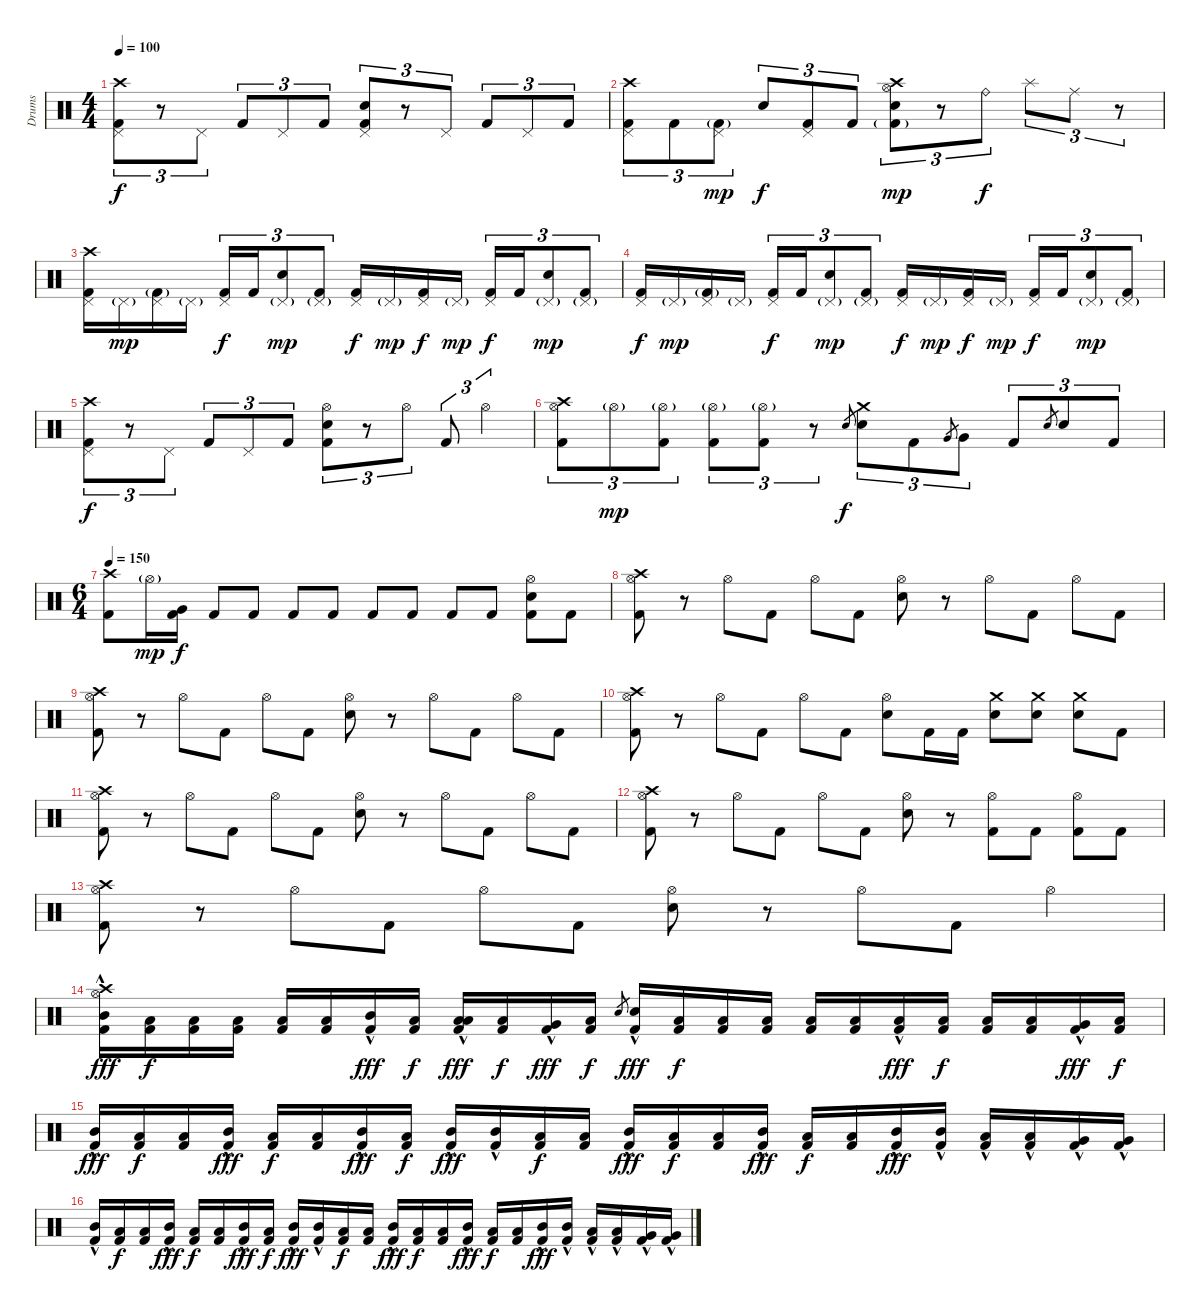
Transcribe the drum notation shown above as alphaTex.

\track ("Drums" "Drums") {instrument percussion}
\staff {score}
\articulation defaults
\ts (4 4)
\tempo 100
\clef neutral
\ks c
("Crash high (hit)" "Pedal Hi-Hat (hit)" "Kick (hit) 2").8{tu (3 2) dy f} r.8{tu (3 2)} "Pedal Hi-Hat (hit)".8{tu (3 2)} "Kick (hit) 2".8{tu (3 2)} "Pedal Hi-Hat (hit)".8{tu (3 2)} "Kick (hit) 2".8{tu (3 2)} ("Pedal Hi-Hat (hit)" "Snare (hit) 2" "Kick (hit) 2").8{tu (3 2)} r.8{tu (3 2)} "Pedal Hi-Hat (hit)".8{tu (3 2)} "Kick (hit) 2".8{tu (3 2)} "Pedal Hi-Hat (hit)".8{tu (3 2)} "Kick (hit) 2".8{tu (3 2)} |
("Crash high (hit)" "Pedal Hi-Hat (hit)" "Kick (hit) 2").8{tu (3 2)} "Kick (hit) 2".8{tu (3 2)} ("Pedal Hi-Hat (hit)" "Kick (hit) 2"{g}).8{tu (3 2) dy mp} "Snare (hit) 2".8{tu (3 2) dy f} ("Pedal Hi-Hat (hit)" "Kick (hit) 2").8{tu (3 2)} "Kick (hit) 2".8{tu (3 2)} ("Crash high (hit)" "Hi-Hat (open)" "Snare (hit) 2" "Kick (hit) 2"{g}).8{tu (3 2) dy mp} r.8{tu (3 2)} "Ride (bell)".8{tu (3 2) dy f} "Splash (hit)".8{tu (3 2)} "Ride (middle)".8{tu (3 2)} r.8{tu (3 2)} |
("Crash high (hit)" "Pedal Hi-Hat (hit)" "Kick (hit) 2").16 "Pedal Hi-Hat (hit)"{g}.16{dy mp} ("Pedal Hi-Hat (hit)" "Kick (hit) 2"{g}).16 "Pedal Hi-Hat (hit)"{g}.16 ("Pedal Hi-Hat (hit)" "Kick (hit) 2").16{tu (3 2) dy f} "Kick (hit) 2".16{tu (3 2)} ("Pedal Hi-Hat (hit)"{g} "Snare (hit) 2").8{tu (3 2) dy mp} ("Pedal Hi-Hat (hit)"{g} "Kick (hit) 2").8{tu (3 2)} ("Pedal Hi-Hat (hit)" "Kick (hit) 2").16{dy f} "Pedal Hi-Hat (hit)"{g}.16{dy mp} ("Pedal Hi-Hat (hit)" "Kick (hit) 2").16{dy f} "Pedal Hi-Hat (hit)"{g}.16{dy mp} ("Pedal Hi-Hat (hit)" "Kick (hit) 2").16{tu (3 2) dy f} "Kick (hit) 2".16{tu (3 2)} ("Pedal Hi-Hat (hit)"{g} "Snare (hit) 2").8{tu (3 2) dy mp} ("Pedal Hi-Hat (hit)"{g} "Kick (hit) 2").8{tu (3 2)} |
("Pedal Hi-Hat (hit)" "Kick (hit) 2").16{dy f} "Pedal Hi-Hat (hit)"{g}.16{dy mp} ("Pedal Hi-Hat (hit)" "Kick (hit) 2"{g}).16 "Pedal Hi-Hat (hit)"{g}.16 ("Pedal Hi-Hat (hit)" "Kick (hit) 2").16{tu (3 2) dy f} "Kick (hit) 2".16{tu (3 2)} ("Pedal Hi-Hat (hit)"{g} "Snare (hit) 2").8{tu (3 2) dy mp} ("Pedal Hi-Hat (hit)"{g} "Kick (hit) 2").8{tu (3 2)} ("Pedal Hi-Hat (hit)" "Kick (hit) 2").16{dy f} "Pedal Hi-Hat (hit)"{g}.16{dy mp} ("Pedal Hi-Hat (hit)" "Kick (hit) 2").16{dy f} "Pedal Hi-Hat (hit)"{g}.16{dy mp} ("Pedal Hi-Hat (hit)" "Kick (hit) 2").16{tu (3 2) dy f} "Kick (hit) 2".16{tu (3 2)} ("Pedal Hi-Hat (hit)"{g} "Snare (hit) 2").8{tu (3 2) dy mp} ("Pedal Hi-Hat (hit)"{g} "Kick (hit) 2").8{tu (3 2)} |
("Crash high (hit)" "Pedal Hi-Hat (hit)" "Kick (hit) 2").8{tu (3 2) dy f volume 11} r.8{tu (3 2)} "Pedal Hi-Hat (hit)".8{tu (3 2)} "Kick (hit) 2".8{tu (3 2)} "Pedal Hi-Hat (hit)".8{tu (3 2)} "Kick (hit) 2".8{tu (3 2)} ("Hi-Hat (open)" "Snare (hit) 2" "Kick (hit) 2").8{tu (3 2)} r.8{tu (3 2)} "Hi-Hat (open)".8{tu (3 2)} "Kick (hit) 2".8{tu (3 2)} "Hi-Hat (open)".4{tu (3 2)} |
("Crash high (hit)" "Hi-Hat (open)" "Kick (hit) 2").8{tu (3 2)} "Hi-Hat (open)"{g}.8{tu (3 2) dy mp} ("Hi-Hat (open)"{g} "Kick (hit) 2").8{tu (3 2)} ("Hi-Hat (open)"{g} "Kick (hit) 2").8{tu (3 2)} ("Hi-Hat (open)"{g} "Kick (hit) 2").8{tu (3 2)} r.8{tu (3 2)} "Snare (hit) 2".8{gr dy f} ("Crash medium (hit)" "Snare (hit) 2").8{tu (3 2)} "Kick (hit) 2".8{tu (3 2)} "Very Low Tom (hit)".8{gr} "Very Low Tom (hit)".8{tu (3 2)} "Kick (hit) 2".8{tu (3 2)} "Snare (hit) 2".8{gr} "Snare (hit) 2".8{tu (3 2)} "Kick (hit) 2".8{tu (3 2)} |
\ts (6 4)
\tempo 150
("Crash high (hit)" "Kick (hit) 2").8 "Hi-Hat (open)"{g}.16{dy mp} ("Very Low Tom (hit)" "Kick (hit) 2").16{dy f} "Kick (hit) 2".8 "Kick (hit) 2".8 "Kick (hit) 2".8 "Kick (hit) 2".8 "Kick (hit) 2".8 "Kick (hit) 2".8 "Kick (hit) 2".8 "Kick (hit) 2".8 ("Hi-Hat (open)" "Snare (hit) 2" "Kick (hit) 2").8 "Kick (hit) 2".8 |
("Crash high (hit)" "Hi-Hat (open)" "Kick (hit) 2").8 r.8 "Hi-Hat (open)".8 "Kick (hit) 2".8 "Hi-Hat (open)".8 "Kick (hit) 2".8 ("Hi-Hat (open)" "Snare (hit) 2").8 r.8 "Hi-Hat (open)".8 "Kick (hit) 2".8 "Hi-Hat (open)".8 "Kick (hit) 2".8 |
("Crash high (hit)" "Hi-Hat (open)" "Kick (hit) 2").8 r.8 "Hi-Hat (open)".8 "Kick (hit) 2".8 "Hi-Hat (open)".8 "Kick (hit) 2".8 ("Hi-Hat (open)" "Snare (hit) 2").8 r.8 "Hi-Hat (open)".8 "Kick (hit) 2".8 "Hi-Hat (open)".8 "Kick (hit) 2".8 |
("Crash high (hit)" "Hi-Hat (open)" "Kick (hit) 2").8 r.8 "Hi-Hat (open)".8 "Kick (hit) 2".8 "Hi-Hat (open)".8 "Kick (hit) 2".8 ("Hi-Hat (open)" "Snare (hit) 2").8 "Kick (hit) 2".16 "Kick (hit) 2".16 ("Crash medium (hit)" "Snare (hit) 2").8 ("Crash medium (hit)" "Snare (hit) 2").8 ("Crash medium (hit)" "Snare (hit) 2").8 "Kick (hit) 2".8 |
("Crash high (hit)" "Hi-Hat (open)" "Kick (hit) 2").8 r.8 "Hi-Hat (open)".8 "Kick (hit) 2".8 "Hi-Hat (open)".8 "Kick (hit) 2".8 ("Hi-Hat (open)" "Snare (hit) 2").8 r.8 "Hi-Hat (open)".8 "Kick (hit) 2".8 "Hi-Hat (open)".8 "Kick (hit) 2".8 |
("Crash high (hit)" "Hi-Hat (open)" "Kick (hit) 2").8 r.8 "Hi-Hat (open)".8 "Kick (hit) 2".8 "Hi-Hat (open)".8 "Kick (hit) 2".8 ("Hi-Hat (open)" "Snare (hit) 2").8 r.8 ("Hi-Hat (open)" "Kick (hit) 2").8 "Kick (hit) 2".8 ("Hi-Hat (open)" "Kick (hit) 2").8 "Kick (hit) 2".8 |
("Crash high (hit)" "Hi-Hat (open)" "Kick (hit) 2").8 r.8 "Hi-Hat (open)".8 "Kick (hit) 2".8 "Hi-Hat (open)".8 "Kick (hit) 2".8 ("Hi-Hat (open)" "Snare (hit) 2").8 r.8 "Hi-Hat (open)".8 "Kick (hit) 2".8 "Hi-Hat (open)".4 |
("Crash high (hit)" "Hi-Hat (open)" "Mid Tom (hit)"{hac} "Kick (hit) 2").16{dy fff} ("Low Floor Tom (hit)" "Kick (hit) 2").16{dy f} ("Low Floor Tom (hit)" "Kick (hit) 2").16 ("Low Floor Tom (hit)" "Kick (hit) 2").16 ("Low Floor Tom (hit)" "Kick (hit) 2").16 ("Low Floor Tom (hit)" "Kick (hit) 2").16 ("Mid Tom (hit)"{hac} "Kick (hit) 2").16{dy fff} ("Low Floor Tom (hit)" "Kick (hit) 2").16{dy f} ("Low Tom (hit)"{hac} "Low Floor Tom (hit)" "Kick (hit) 2").16{dy fff} ("Low Floor Tom (hit)" "Kick (hit) 2").16{dy f} ("Very Low Tom (hit)"{hac} "Kick (hit) 2").16{dy fff} ("Low Floor Tom (hit)" "Kick (hit) 2").16{dy f} "Snare (hit) 2".8{gr} ("Snare (hit) 2"{hac} "Kick (hit) 2").16{dy fff} ("Low Floor Tom (hit)" "Kick (hit) 2").16{dy f} ("Low Floor Tom (hit)" "Kick (hit) 2").16 ("Low Floor Tom (hit)" "Kick (hit) 2").16 ("Low Floor Tom (hit)" "Kick (hit) 2").16 ("Low Floor Tom (hit)" "Kick (hit) 2").16 ("Low Tom (hit)"{hac} "Kick (hit) 2").16{dy fff} ("Low Floor Tom (hit)" "Kick (hit) 2").16{dy f} ("Low Floor Tom (hit)" "Kick (hit) 2").16 ("Low Floor Tom (hit)" "Kick (hit) 2").16 ("Very Low Tom (hit)"{hac} "Kick (hit) 2").16{dy fff} ("Low Floor Tom (hit)" "Kick (hit) 2").16{dy f} |
("Mid Tom (hit)"{hac} "Kick (hit) 2").16{dy fff} ("Low Floor Tom (hit)" "Kick (hit) 2").16{dy f} ("Low Floor Tom (hit)" "Kick (hit) 2").16 ("Mid Tom (hit)"{hac} "Kick (hit) 2").16{dy fff} ("Low Floor Tom (hit)" "Kick (hit) 2").16{dy f} ("Low Floor Tom (hit)" "Kick (hit) 2").16 ("Mid Tom (hit)"{hac} "Kick (hit) 2").16{dy fff} ("Low Floor Tom (hit)" "Kick (hit) 2").16{dy f} ("Mid Tom (hit)"{hac} "Kick (hit) 2").16{dy fff} ("Mid Tom (hit)"{hac} "Kick (hit) 2").16 ("Low Floor Tom (hit)" "Kick (hit) 2").16{dy f} ("Low Floor Tom (hit)" "Kick (hit) 2").16 ("Mid Tom (hit)"{hac} "Kick (hit) 2").16{dy fff} ("Low Floor Tom (hit)" "Kick (hit) 2").16{dy f} ("Low Floor Tom (hit)" "Kick (hit) 2").16 ("Mid Tom (hit)"{hac} "Kick (hit) 2").16{dy fff} ("Low Floor Tom (hit)" "Kick (hit) 2").16{dy f} ("Low Floor Tom (hit)" "Kick (hit) 2").16 ("Mid Tom (hit)"{hac} "Kick (hit) 2").16{dy fff} ("Mid Tom (hit)"{hac} "Kick (hit) 2").16 ("Low Tom (hit)"{hac} "Kick (hit) 2").16 ("Low Tom (hit)"{hac} "Kick (hit) 2").16 ("Very Low Tom (hit)"{hac} "Kick (hit) 2").16 ("Very Low Tom (hit)"{hac} "Kick (hit) 2").16 |
("Mid Tom (hit)"{hac} "Kick (hit) 2").16 ("Low Floor Tom (hit)" "Kick (hit) 2").16{dy f} ("Low Floor Tom (hit)" "Kick (hit) 2").16 ("Mid Tom (hit)"{hac} "Kick (hit) 2").16{dy fff} ("Low Floor Tom (hit)" "Kick (hit) 2").16{dy f} ("Low Floor Tom (hit)" "Kick (hit) 2").16 ("Mid Tom (hit)"{hac} "Kick (hit) 2").16{dy fff} ("Low Floor Tom (hit)" "Kick (hit) 2").16{dy f} ("Mid Tom (hit)"{hac} "Kick (hit) 2").16{dy fff} ("Mid Tom (hit)"{hac} "Kick (hit) 2").16 ("Low Floor Tom (hit)" "Kick (hit) 2").16{dy f} ("Low Floor Tom (hit)" "Kick (hit) 2").16 ("Mid Tom (hit)"{hac} "Kick (hit) 2").16{dy fff} ("Low Floor Tom (hit)" "Kick (hit) 2").16{dy f} ("Low Floor Tom (hit)" "Kick (hit) 2").16 ("Mid Tom (hit)"{hac} "Kick (hit) 2").16{dy fff} ("Low Floor Tom (hit)" "Kick (hit) 2").16{dy f} ("Low Floor Tom (hit)" "Kick (hit) 2").16 ("Mid Tom (hit)"{hac} "Kick (hit) 2").16{dy fff} ("Mid Tom (hit)"{hac} "Kick (hit) 2").16 ("Low Tom (hit)"{hac} "Kick (hit) 2").16 ("Low Tom (hit)"{hac} "Kick (hit) 2").16 ("Very Low Tom (hit)"{hac} "Kick (hit) 2").16 ("Very Low Tom (hit)"{hac} "Kick (hit) 2").16
